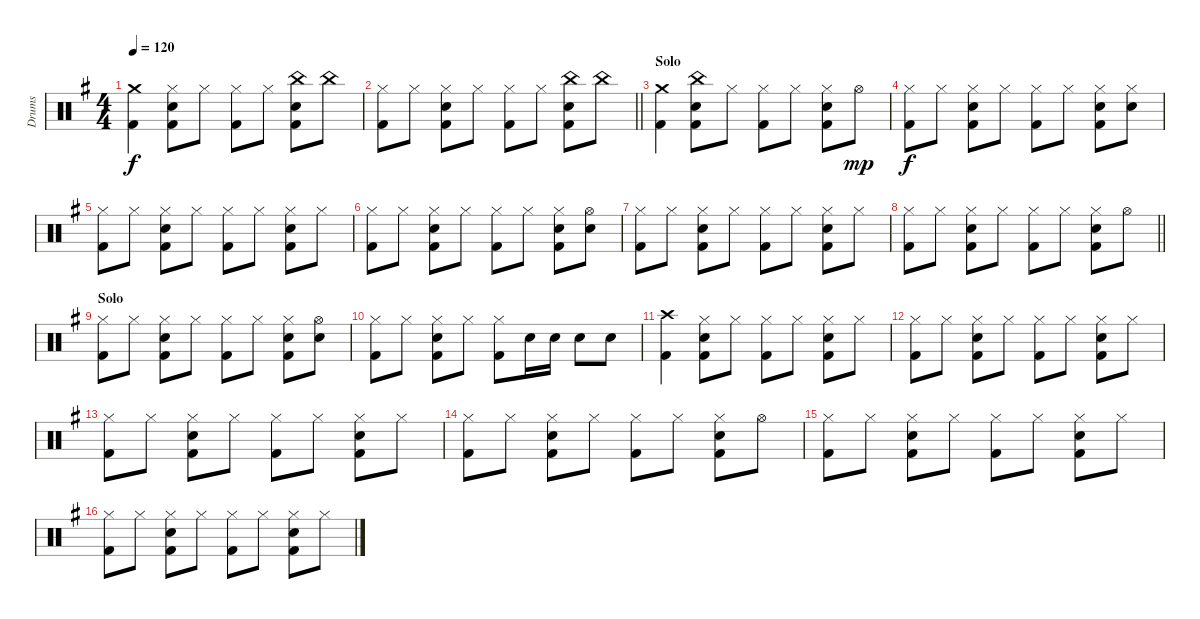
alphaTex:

\track ("Drums" "Drums") {instrument percussion}
\staff {score}
\articulation defaults
\ts (4 4)
\tempo 120
\clef neutral
\ks g
("Crash medium (hit)" "Kick (hit) 2").4{dy f} ("Hi-Hat (closed)" "Electric Snare (hit)" "Kick (hit) 2").8 "Hi-Hat (closed)".8 ("Hi-Hat (closed)" "Kick (hit) 2").8 "Hi-Hat (closed)".8 ("China (hit)" "Electric Snare (hit)" "Kick (hit) 2").8 "China (hit)".8 |
\barLineRight lightlight
("Hi-Hat (closed)" "Kick (hit) 2").8 "Hi-Hat (closed)".8 ("Hi-Hat (closed)" "Electric Snare (hit)" "Kick (hit) 2").8 "Hi-Hat (closed)".8 ("Hi-Hat (closed)" "Kick (hit) 2").8 "Hi-Hat (closed)".8 ("China (hit)" "Electric Snare (hit)" "Kick (hit) 2").8 "China (hit)".8 |
\section ("" "Solo")
("Crash medium (hit)" "Kick (hit) 2").4 ("China (hit)" "Electric Snare (hit)" "Kick (hit) 2").8 "Hi-Hat (closed)".8 ("Hi-Hat (closed)" "Kick (hit) 2").8 "Hi-Hat (closed)".8 ("Hi-Hat (closed)" "Electric Snare (hit)" "Kick (hit) 2").8 "Hi-Hat (open)".8{dy mp} |
("Hi-Hat (closed)" "Kick (hit) 2").8{dy f} "Hi-Hat (closed)".8 ("Hi-Hat (closed)" "Electric Snare (hit)" "Kick (hit) 2").8 "Hi-Hat (closed)".8 ("Hi-Hat (closed)" "Kick (hit) 2").8 "Hi-Hat (closed)".8 ("Hi-Hat (closed)" "Electric Snare (hit)" "Kick (hit) 2").8 ("Hi-Hat (closed)" "Electric Snare (hit)").8 |
("Hi-Hat (closed)" "Kick (hit) 2").8 "Hi-Hat (closed)".8 ("Hi-Hat (closed)" "Electric Snare (hit)" "Kick (hit) 2").8 "Hi-Hat (closed)".8 ("Hi-Hat (closed)" "Kick (hit) 2").8 "Hi-Hat (closed)".8 ("Hi-Hat (closed)" "Electric Snare (hit)" "Kick (hit) 2").8 "Hi-Hat (closed)".8 |
("Hi-Hat (closed)" "Kick (hit) 2").8 "Hi-Hat (closed)".8 ("Hi-Hat (closed)" "Electric Snare (hit)" "Kick (hit) 2").8 "Hi-Hat (closed)".8 ("Hi-Hat (closed)" "Kick (hit) 2").8 "Hi-Hat (closed)".8 ("Hi-Hat (closed)" "Electric Snare (hit)" "Kick (hit) 2").8 ("Hi-Hat (open)" "Electric Snare (hit)").8 |
("Hi-Hat (closed)" "Kick (hit) 2").8 "Hi-Hat (closed)".8 ("Hi-Hat (closed)" "Electric Snare (hit)" "Kick (hit) 2").8 "Hi-Hat (closed)".8 ("Hi-Hat (closed)" "Kick (hit) 2").8 "Hi-Hat (closed)".8 ("Hi-Hat (closed)" "Electric Snare (hit)" "Kick (hit) 2").8 "Hi-Hat (closed)".8 |
\barLineRight lightlight
("Hi-Hat (closed)" "Kick (hit) 2").8 "Hi-Hat (closed)".8 ("Hi-Hat (closed)" "Electric Snare (hit)" "Kick (hit) 2").8 "Hi-Hat (closed)".8 ("Hi-Hat (closed)" "Kick (hit) 2").8 "Hi-Hat (closed)".8 ("Hi-Hat (closed)" "Electric Snare (hit)" "Kick (hit) 2").8 "Hi-Hat (open)".8 |
\section ("" "Solo")
("Hi-Hat (closed)" "Kick (hit) 2").8 "Hi-Hat (closed)".8 ("Hi-Hat (closed)" "Electric Snare (hit)" "Kick (hit) 2").8 "Hi-Hat (closed)".8 ("Hi-Hat (closed)" "Kick (hit) 2").8 "Hi-Hat (closed)".8 ("Hi-Hat (closed)" "Electric Snare (hit)" "Kick (hit) 2").8 ("Hi-Hat (open)" "Electric Snare (hit)").8 |
("Hi-Hat (closed)" "Kick (hit) 2").8 "Hi-Hat (closed)".8 ("Hi-Hat (closed)" "Electric Snare (hit)" "Kick (hit) 2").8 "Hi-Hat (closed)".8 ("Hi-Hat (closed)" "Kick (hit) 2").8 "Electric Snare (hit)".16 "Electric Snare (hit)".16 "Electric Snare (hit)".8 "Electric Snare (hit)".8 |
("Crash high (hit)" "Kick (hit) 2").4 ("Hi-Hat (closed)" "Electric Snare (hit)" "Kick (hit) 2").8 "Hi-Hat (closed)".8 ("Hi-Hat (closed)" "Kick (hit) 2").8 "Hi-Hat (closed)".8 ("Hi-Hat (closed)" "Electric Snare (hit)" "Kick (hit) 2").8 "Hi-Hat (closed)".8 |
("Hi-Hat (closed)" "Kick (hit) 2").8 "Hi-Hat (closed)".8 ("Hi-Hat (closed)" "Electric Snare (hit)" "Kick (hit) 2").8 "Hi-Hat (closed)".8 ("Hi-Hat (closed)" "Kick (hit) 2").8 "Hi-Hat (closed)".8 ("Hi-Hat (closed)" "Electric Snare (hit)" "Kick (hit) 2").8 "Hi-Hat (closed)".8 |
("Hi-Hat (closed)" "Kick (hit) 2").8 "Hi-Hat (closed)".8 ("Hi-Hat (closed)" "Electric Snare (hit)" "Kick (hit) 2").8 "Hi-Hat (closed)".8 ("Hi-Hat (closed)" "Kick (hit) 2").8 "Hi-Hat (closed)".8 ("Hi-Hat (closed)" "Electric Snare (hit)" "Kick (hit) 2").8 "Hi-Hat (closed)".8 |
("Hi-Hat (closed)" "Kick (hit) 2").8 "Hi-Hat (closed)".8 ("Hi-Hat (closed)" "Electric Snare (hit)" "Kick (hit) 2").8 "Hi-Hat (closed)".8 ("Hi-Hat (closed)" "Kick (hit) 2").8 "Hi-Hat (closed)".8 ("Hi-Hat (closed)" "Electric Snare (hit)" "Kick (hit) 2").8 "Hi-Hat (open)".8 |
("Hi-Hat (closed)" "Kick (hit) 2").8 "Hi-Hat (closed)".8 ("Hi-Hat (closed)" "Electric Snare (hit)" "Kick (hit) 2").8 "Hi-Hat (closed)".8 ("Hi-Hat (closed)" "Kick (hit) 2").8 "Hi-Hat (closed)".8 ("Hi-Hat (closed)" "Electric Snare (hit)" "Kick (hit) 2").8 "Hi-Hat (closed)".8 |
("Hi-Hat (closed)" "Kick (hit) 2").8 "Hi-Hat (closed)".8 ("Hi-Hat (closed)" "Electric Snare (hit)" "Kick (hit) 2").8 "Hi-Hat (closed)".8 ("Hi-Hat (closed)" "Kick (hit) 2").8 "Hi-Hat (closed)".8 ("Hi-Hat (closed)" "Electric Snare (hit)" "Kick (hit) 2").8 "Hi-Hat (closed)".8
